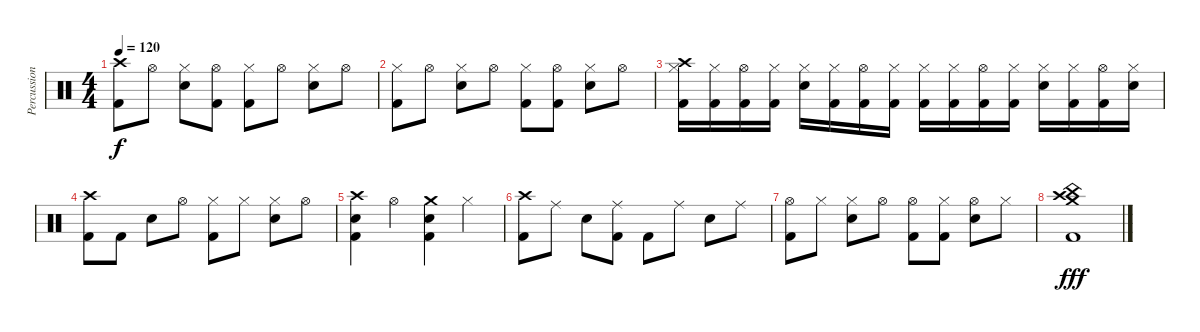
\track ("Percussion" "Percussion") {instrument percussion}
\staff {score}
\articulation defaults
\ts (4 4)
\tempo 120
\clef neutral
\ks c
("Crash high (hit)" "Kick (hit) 2").8{dy f} "Hi-Hat (open)".8 ("Hi-Hat (closed)" "Snare (hit) 2").8 ("Hi-Hat (open)" "Kick (hit) 2").8 ("Hi-Hat (closed)" "Kick (hit) 2").8 "Hi-Hat (open)".8 ("Hi-Hat (closed)" "Snare (hit) 2").8 "Hi-Hat (open)".8 |
("Hi-Hat (closed)" "Kick (hit) 2").8 "Hi-Hat (open)".8 ("Hi-Hat (closed)" "Snare (hit) 2").8 "Hi-Hat (open)".8 ("Hi-Hat (closed)" "Kick (hit) 2").8 ("Hi-Hat (open)" "Kick (hit) 2").8 ("Hi-Hat (closed)" "Snare (hit) 2").8 "Hi-Hat (open)".8 |
("Crash high (hit)" "Hi-Hat (closed)" "Kick (hit) 2").16 ("Hi-Hat (closed)" "Kick (hit) 2").16 ("Hi-Hat (open)" "Kick (hit) 2").16 ("Hi-Hat (closed)" "Kick (hit) 2").16 ("Hi-Hat (closed)" "Snare (hit) 2").16 ("Hi-Hat (closed)" "Kick (hit) 2").16 ("Hi-Hat (open)" "Kick (hit) 2").16 ("Hi-Hat (closed)" "Kick (hit) 2").16 ("Hi-Hat (closed)" "Kick (hit) 2").16 ("Hi-Hat (closed)" "Kick (hit) 2").16 ("Hi-Hat (open)" "Kick (hit) 2").16 ("Hi-Hat (closed)" "Kick (hit) 2").16 ("Hi-Hat (closed)" "Snare (hit) 2").16 ("Hi-Hat (closed)" "Kick (hit) 2").16 ("Hi-Hat (open)" "Kick (hit) 2").16 ("Hi-Hat (closed)" "Snare (hit) 2").16 |
("Crash high (hit)" "Kick (hit) 2").8 "Kick (hit) 2".8 "Snare (hit) 2".8 "Hi-Hat (open)".8 ("Hi-Hat (closed)" "Kick (hit) 2").8 "Hi-Hat (closed)".8 ("Hi-Hat (closed)" "Snare (hit) 2").8 "Hi-Hat (open)".8 |
("Crash high (hit)" "Snare (hit) 2" "Kick (hit) 2").4 "Hi-Hat (open)".4 ("Crash medium (hit)" "Snare (hit) 2" "Kick (hit) 2").4 "Hi-Hat (closed)".4 |
("Crash high (hit)" "Kick (hit) 2").8 "Ride (middle)".8 "Snare (hit) 2".8 ("Ride (middle)" "Kick (hit) 2").8 "Kick (hit) 2".8 "Ride (middle)".8 "Snare (hit) 2".8 "Ride (middle)".8 |
("Hi-Hat (open)" "Kick (hit) 2").8 "Hi-Hat (closed)".8 ("Hi-Hat (closed)" "Snare (hit) 2").8 "Hi-Hat (open)".8 ("Hi-Hat (open)" "Kick (hit) 2").8 ("Hi-Hat (closed)" "Kick (hit) 2").8 ("Hi-Hat (open)" "Snare (hit) 2").8 "Hi-Hat (closed)".8 |
("Crash high (hit)" "Crash medium (hit)" "China (hit)" "Kick (hit) 2").1{dy fff}
